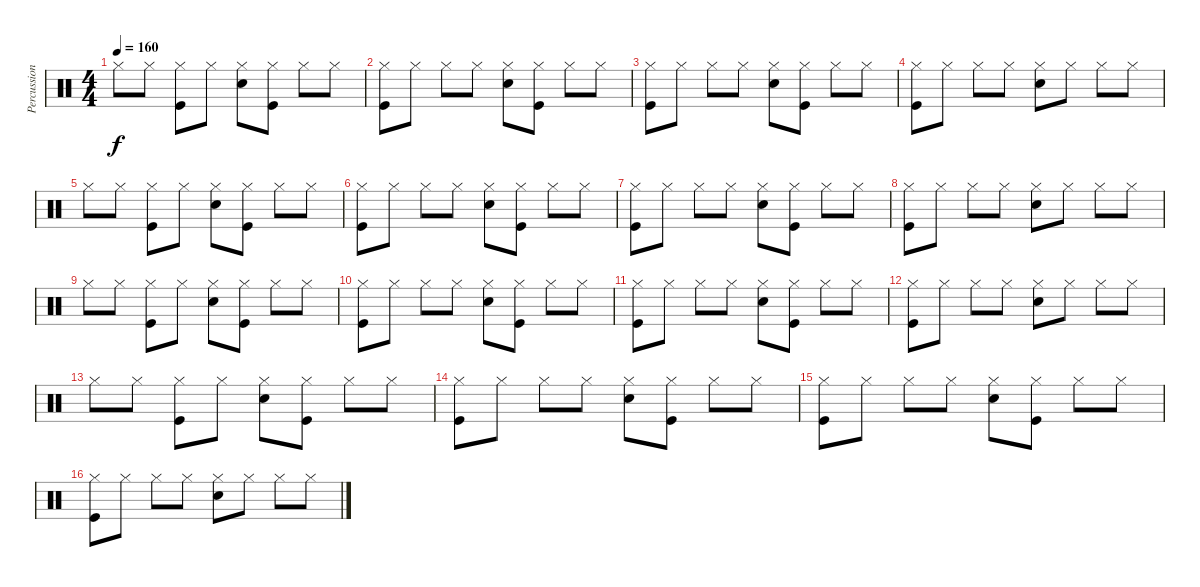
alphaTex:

\track ("Percussion" "Percussion") {instrument percussion}
\staff {score}
\articulation defaults
\ts (4 4)
\tempo 160
\clef neutral
\ks c "Hi-Hat (closed)".8{dy f} "Hi-Hat (closed)".8
("Hi-Hat (closed)" "Kick (hit)").8 "Hi-Hat (closed)".8 ("Hi-Hat (closed)" "Snare (hit) 2").8 ("Hi-Hat (closed)" "Kick (hit)").8 "Hi-Hat (closed)".8 "Hi-Hat (closed)".8 |
("Hi-Hat (closed)" "Kick (hit)").8 "Hi-Hat (closed)".8 "Hi-Hat (closed)".8 "Hi-Hat (closed)".8 ("Hi-Hat (closed)" "Snare (hit) 2").8 ("Hi-Hat (closed)" "Kick (hit)").8 "Hi-Hat (closed)".8 "Hi-Hat (closed)".8 |
("Hi-Hat (closed)" "Kick (hit)").8 "Hi-Hat (closed)".8 "Hi-Hat (closed)".8 "Hi-Hat (closed)".8 ("Hi-Hat (closed)" "Snare (hit) 2").8 ("Hi-Hat (closed)" "Kick (hit)").8 "Hi-Hat (closed)".8 "Hi-Hat (closed)".8 |
("Hi-Hat (closed)" "Kick (hit)").8 "Hi-Hat (closed)".8 "Hi-Hat (closed)".8 "Hi-Hat (closed)".8 ("Hi-Hat (closed)" "Snare (hit) 2").8 "Hi-Hat (closed)".8 "Hi-Hat (closed)".8 "Hi-Hat (closed)".8 |
"Hi-Hat (closed)".8 "Hi-Hat (closed)".8 ("Hi-Hat (closed)" "Kick (hit)").8 "Hi-Hat (closed)".8 ("Hi-Hat (closed)" "Snare (hit) 2").8 ("Hi-Hat (closed)" "Kick (hit)").8 "Hi-Hat (closed)".8 "Hi-Hat (closed)".8 |
("Hi-Hat (closed)" "Kick (hit)").8 "Hi-Hat (closed)".8 "Hi-Hat (closed)".8 "Hi-Hat (closed)".8 ("Hi-Hat (closed)" "Snare (hit) 2").8 ("Hi-Hat (closed)" "Kick (hit)").8 "Hi-Hat (closed)".8 "Hi-Hat (closed)".8 |
("Hi-Hat (closed)" "Kick (hit)").8 "Hi-Hat (closed)".8 "Hi-Hat (closed)".8 "Hi-Hat (closed)".8 ("Hi-Hat (closed)" "Snare (hit) 2").8 ("Hi-Hat (closed)" "Kick (hit)").8 "Hi-Hat (closed)".8 "Hi-Hat (closed)".8 |
("Hi-Hat (closed)" "Kick (hit)").8 "Hi-Hat (closed)".8 "Hi-Hat (closed)".8 "Hi-Hat (closed)".8 ("Hi-Hat (closed)" "Snare (hit) 2").8 "Hi-Hat (closed)".8 "Hi-Hat (closed)".8 "Hi-Hat (closed)".8 |
"Hi-Hat (closed)".8 "Hi-Hat (closed)".8 ("Hi-Hat (closed)" "Kick (hit)").8 "Hi-Hat (closed)".8 ("Hi-Hat (closed)" "Snare (hit) 2").8 ("Hi-Hat (closed)" "Kick (hit)").8 "Hi-Hat (closed)".8 "Hi-Hat (closed)".8 |
("Hi-Hat (closed)" "Kick (hit)").8 "Hi-Hat (closed)".8 "Hi-Hat (closed)".8 "Hi-Hat (closed)".8 ("Hi-Hat (closed)" "Snare (hit) 2").8 ("Hi-Hat (closed)" "Kick (hit)").8 "Hi-Hat (closed)".8 "Hi-Hat (closed)".8 |
("Hi-Hat (closed)" "Kick (hit)").8 "Hi-Hat (closed)".8 "Hi-Hat (closed)".8 "Hi-Hat (closed)".8 ("Hi-Hat (closed)" "Snare (hit) 2").8 ("Hi-Hat (closed)" "Kick (hit)").8 "Hi-Hat (closed)".8 "Hi-Hat (closed)".8 |
("Hi-Hat (closed)" "Kick (hit)").8 "Hi-Hat (closed)".8 "Hi-Hat (closed)".8 "Hi-Hat (closed)".8 ("Hi-Hat (closed)" "Snare (hit) 2").8 "Hi-Hat (closed)".8 "Hi-Hat (closed)".8 "Hi-Hat (closed)".8 |
"Hi-Hat (closed)".8 "Hi-Hat (closed)".8 ("Hi-Hat (closed)" "Kick (hit)").8 "Hi-Hat (closed)".8 ("Hi-Hat (closed)" "Snare (hit) 2").8 ("Hi-Hat (closed)" "Kick (hit)").8 "Hi-Hat (closed)".8 "Hi-Hat (closed)".8 |
("Hi-Hat (closed)" "Kick (hit)").8 "Hi-Hat (closed)".8 "Hi-Hat (closed)".8 "Hi-Hat (closed)".8 ("Hi-Hat (closed)" "Snare (hit) 2").8 ("Hi-Hat (closed)" "Kick (hit)").8 "Hi-Hat (closed)".8 "Hi-Hat (closed)".8 |
("Hi-Hat (closed)" "Kick (hit)").8 "Hi-Hat (closed)".8 "Hi-Hat (closed)".8 "Hi-Hat (closed)".8 ("Hi-Hat (closed)" "Snare (hit) 2").8 ("Hi-Hat (closed)" "Kick (hit)").8 "Hi-Hat (closed)".8 "Hi-Hat (closed)".8 |
("Hi-Hat (closed)" "Kick (hit)").8 "Hi-Hat (closed)".8 "Hi-Hat (closed)".8 "Hi-Hat (closed)".8 ("Hi-Hat (closed)" "Snare (hit) 2").8 "Hi-Hat (closed)".8 "Hi-Hat (closed)".8 "Hi-Hat (closed)".8
